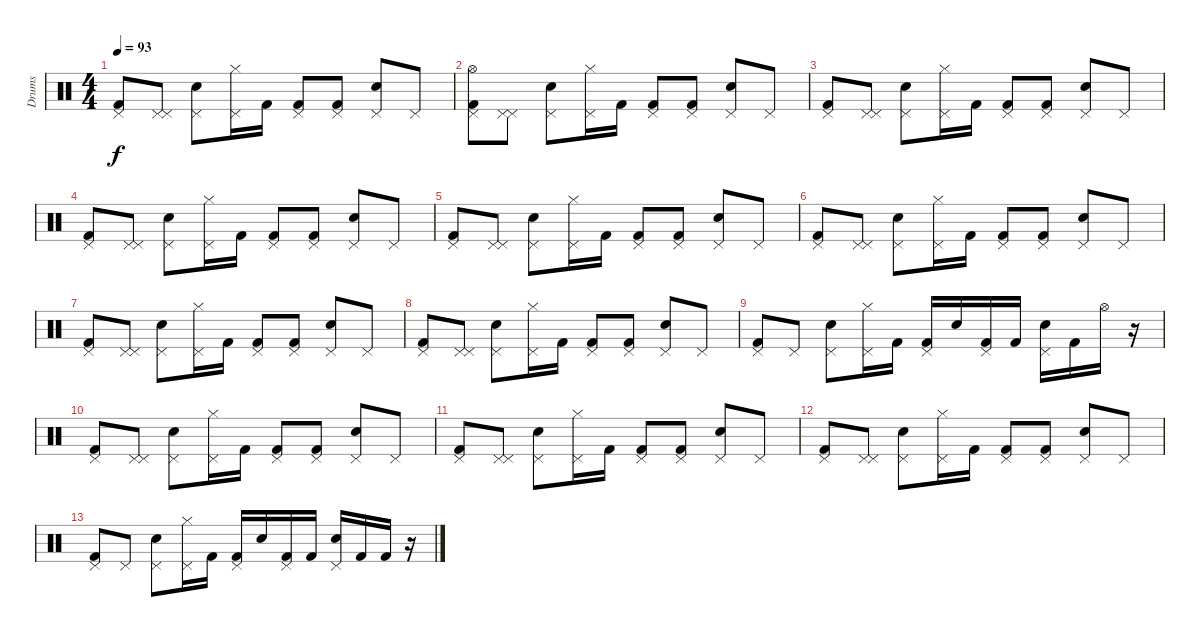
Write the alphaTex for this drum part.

\track ("Drums" "Drums") {instrument percussion}
\staff {score}
\articulation defaults
\ts (4 4)
\tempo 93
\clef neutral
\ks c
("Pedal Hi-Hat (hit)" "Kick (hit) 2").8{dy f} ("Pedal Hi-Hat (hit)" "Pedal Hi-Hat (hit)").8 ("Electric Snare (hit)" "Pedal Hi-Hat (hit)").8 ("Hi-Hat (closed)" "Pedal Hi-Hat (hit)").16 "Kick (hit) 2".16 ("Pedal Hi-Hat (hit)" "Kick (hit) 2").8 ("Pedal Hi-Hat (hit)" "Kick (hit) 2").8 ("Electric Snare (hit)" "Pedal Hi-Hat (hit)").8 "Pedal Hi-Hat (hit)".8 |
("Hi-Hat (open)" "Pedal Hi-Hat (hit)" "Kick (hit) 2").8 ("Pedal Hi-Hat (hit)" "Pedal Hi-Hat (hit)").8 ("Electric Snare (hit)" "Pedal Hi-Hat (hit)").8 ("Hi-Hat (closed)" "Pedal Hi-Hat (hit)").16 "Kick (hit) 2".16 ("Pedal Hi-Hat (hit)" "Kick (hit) 2").8 ("Pedal Hi-Hat (hit)" "Kick (hit) 2").8 ("Electric Snare (hit)" "Pedal Hi-Hat (hit)").8 "Pedal Hi-Hat (hit)".8 |
("Pedal Hi-Hat (hit)" "Kick (hit) 2").8 ("Pedal Hi-Hat (hit)" "Pedal Hi-Hat (hit)").8 ("Electric Snare (hit)" "Pedal Hi-Hat (hit)").8 ("Hi-Hat (closed)" "Pedal Hi-Hat (hit)").16 "Kick (hit) 2".16 ("Pedal Hi-Hat (hit)" "Kick (hit) 2").8 ("Pedal Hi-Hat (hit)" "Kick (hit) 2").8 ("Electric Snare (hit)" "Pedal Hi-Hat (hit)").8 "Pedal Hi-Hat (hit)".8 |
("Pedal Hi-Hat (hit)" "Kick (hit) 2").8 ("Pedal Hi-Hat (hit)" "Pedal Hi-Hat (hit)").8 ("Electric Snare (hit)" "Pedal Hi-Hat (hit)").8 ("Hi-Hat (closed)" "Pedal Hi-Hat (hit)").16 "Kick (hit) 2".16 ("Pedal Hi-Hat (hit)" "Kick (hit) 2").8 ("Pedal Hi-Hat (hit)" "Kick (hit) 2").8 ("Electric Snare (hit)" "Pedal Hi-Hat (hit)").8 "Pedal Hi-Hat (hit)".8 |
("Pedal Hi-Hat (hit)" "Kick (hit) 2").8 ("Pedal Hi-Hat (hit)" "Pedal Hi-Hat (hit)").8 ("Electric Snare (hit)" "Pedal Hi-Hat (hit)").8 ("Hi-Hat (closed)" "Pedal Hi-Hat (hit)").16 "Kick (hit) 2".16 ("Pedal Hi-Hat (hit)" "Kick (hit) 2").8 ("Pedal Hi-Hat (hit)" "Kick (hit) 2").8 ("Electric Snare (hit)" "Pedal Hi-Hat (hit)").8 "Pedal Hi-Hat (hit)".8 |
("Pedal Hi-Hat (hit)" "Kick (hit) 2").8 ("Pedal Hi-Hat (hit)" "Pedal Hi-Hat (hit)").8 ("Electric Snare (hit)" "Pedal Hi-Hat (hit)").8 ("Hi-Hat (closed)" "Pedal Hi-Hat (hit)").16 "Kick (hit) 2".16 ("Pedal Hi-Hat (hit)" "Kick (hit) 2").8 ("Pedal Hi-Hat (hit)" "Kick (hit) 2").8 ("Electric Snare (hit)" "Pedal Hi-Hat (hit)").8 "Pedal Hi-Hat (hit)".8 |
("Pedal Hi-Hat (hit)" "Kick (hit) 2").8 ("Pedal Hi-Hat (hit)" "Pedal Hi-Hat (hit)").8 ("Electric Snare (hit)" "Pedal Hi-Hat (hit)").8 ("Hi-Hat (closed)" "Pedal Hi-Hat (hit)").16 "Kick (hit) 2".16 ("Pedal Hi-Hat (hit)" "Kick (hit) 2").8 ("Pedal Hi-Hat (hit)" "Kick (hit) 2").8 ("Electric Snare (hit)" "Pedal Hi-Hat (hit)").8 "Pedal Hi-Hat (hit)".8 |
("Pedal Hi-Hat (hit)" "Kick (hit) 2").8 ("Pedal Hi-Hat (hit)" "Pedal Hi-Hat (hit)").8 ("Electric Snare (hit)" "Pedal Hi-Hat (hit)").8 ("Hi-Hat (closed)" "Pedal Hi-Hat (hit)").16 "Kick (hit) 2".16 ("Pedal Hi-Hat (hit)" "Kick (hit) 2").8 ("Pedal Hi-Hat (hit)" "Kick (hit) 2").8 ("Electric Snare (hit)" "Pedal Hi-Hat (hit)").8 "Pedal Hi-Hat (hit)".8 |
("Pedal Hi-Hat (hit)" "Kick (hit) 2").8 "Pedal Hi-Hat (hit)".8 ("Electric Snare (hit)" "Pedal Hi-Hat (hit)").8 ("Hi-Hat (closed)" "Pedal Hi-Hat (hit)").16 "Kick (hit) 2".16 ("Pedal Hi-Hat (hit)" "Kick (hit) 2").16 "Electric Snare (hit)".16 ("Pedal Hi-Hat (hit)" "Kick (hit) 2").16 "Kick (hit) 2".16 ("Electric Snare (hit)" "Pedal Hi-Hat (hit)").16 "Kick (hit) 2".16 "Hi-Hat (open)".16 r.16 |
("Pedal Hi-Hat (hit)" "Kick (hit) 2").8 ("Pedal Hi-Hat (hit)" "Pedal Hi-Hat (hit)").8 ("Electric Snare (hit)" "Pedal Hi-Hat (hit)").8 ("Hi-Hat (closed)" "Pedal Hi-Hat (hit)").16 "Kick (hit) 2".16 ("Pedal Hi-Hat (hit)" "Kick (hit) 2").8 ("Pedal Hi-Hat (hit)" "Kick (hit) 2").8 ("Electric Snare (hit)" "Pedal Hi-Hat (hit)").8 "Pedal Hi-Hat (hit)".8 |
("Pedal Hi-Hat (hit)" "Kick (hit) 2").8 ("Pedal Hi-Hat (hit)" "Pedal Hi-Hat (hit)").8 ("Electric Snare (hit)" "Pedal Hi-Hat (hit)").8 ("Hi-Hat (closed)" "Pedal Hi-Hat (hit)").16 "Kick (hit) 2".16 ("Pedal Hi-Hat (hit)" "Kick (hit) 2").8 ("Pedal Hi-Hat (hit)" "Kick (hit) 2").8 ("Electric Snare (hit)" "Pedal Hi-Hat (hit)").8 "Pedal Hi-Hat (hit)".8 |
("Pedal Hi-Hat (hit)" "Kick (hit) 2").8 ("Pedal Hi-Hat (hit)" "Pedal Hi-Hat (hit)").8 ("Electric Snare (hit)" "Pedal Hi-Hat (hit)").8 ("Hi-Hat (closed)" "Pedal Hi-Hat (hit)").16 "Kick (hit) 2".16 ("Pedal Hi-Hat (hit)" "Kick (hit) 2").8 ("Pedal Hi-Hat (hit)" "Kick (hit) 2").8 ("Electric Snare (hit)" "Pedal Hi-Hat (hit)").8 "Pedal Hi-Hat (hit)".8 |
("Pedal Hi-Hat (hit)" "Kick (hit) 2").8 "Pedal Hi-Hat (hit)".8 ("Electric Snare (hit)" "Pedal Hi-Hat (hit)").8 ("Hi-Hat (closed)" "Pedal Hi-Hat (hit)").16 "Kick (hit) 2".16 ("Pedal Hi-Hat (hit)" "Kick (hit) 2").16 "Electric Snare (hit)".16 ("Pedal Hi-Hat (hit)" "Kick (hit) 2").16 "Kick (hit) 2".16 ("Electric Snare (hit)" "Pedal Hi-Hat (hit)").16 "Kick (hit) 2".16 "Kick (hit) 2".16 r.16
